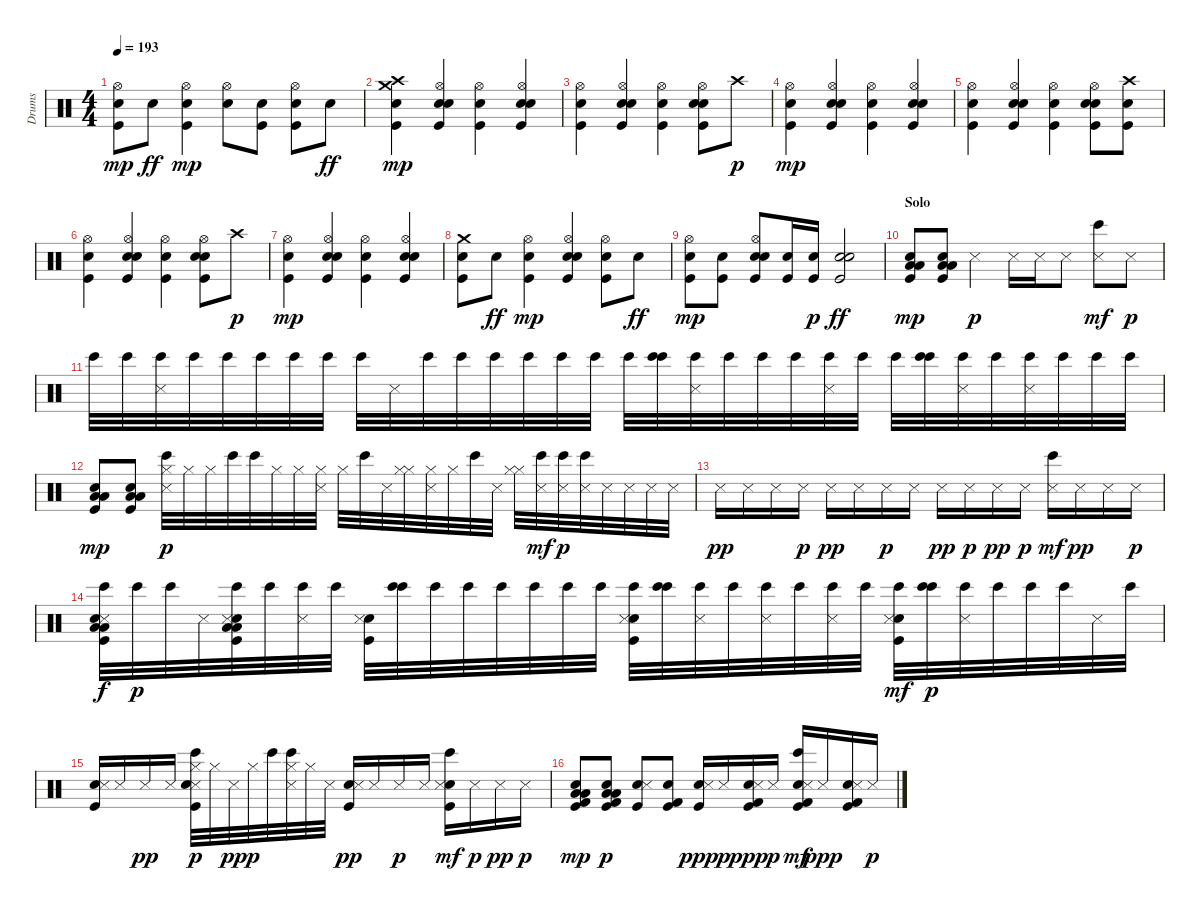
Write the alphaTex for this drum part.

\track ("Drums" "Drums") {instrument percussion}
\staff {score}
\articulation defaults
\ts (4 4)
\tempo 193
\clef neutral
\ks c
("Kick (hit)" "Snare (hit) 2" "Hi-Hat (open)").8{dy mp} "Electric Snare (hit)".8{dy ff} ("Kick (hit)" "Snare (hit) 2" "Hi-Hat (open)").4{dy mp} ("Electric Snare (hit)" "Hi-Hat (open)").8 ("Kick (hit)" "Snare (hit) 2").8 ("Kick (hit)" "Snare (hit) 2" "Hi-Hat (open)").8 "Electric Snare (hit)".8{dy ff} |
("Crash medium (hit)" "Crash high (hit)" "Kick (hit)" "Snare (hit) 2").4{dy mp} ("Kick (hit)" "Snare (hit) 2" "Electric Snare (hit)" "Hi-Hat (open)").4 ("Kick (hit)" "Snare (hit) 2" "Hi-Hat (open)").4 ("Kick (hit)" "Snare (hit) 2" "Electric Snare (hit)" "Hi-Hat (open)").4 |
("Kick (hit)" "Snare (hit) 2" "Hi-Hat (open)").4 ("Kick (hit)" "Snare (hit) 2" "Electric Snare (hit)" "Hi-Hat (open)").4 ("Kick (hit)" "Snare (hit) 2" "Hi-Hat (open)").4 ("Kick (hit)" "Snare (hit) 2" "Electric Snare (hit)" "Hi-Hat (open)").8 "Crash high (hit)".8{dy p} |
("Kick (hit)" "Snare (hit) 2" "Hi-Hat (open)").4{dy mp} ("Kick (hit)" "Snare (hit) 2" "Electric Snare (hit)" "Hi-Hat (open)").4 ("Kick (hit)" "Snare (hit) 2" "Hi-Hat (open)").4 ("Kick (hit)" "Snare (hit) 2" "Electric Snare (hit)" "Hi-Hat (open)").4 |
("Kick (hit)" "Snare (hit) 2" "Hi-Hat (open)").4 ("Kick (hit)" "Snare (hit) 2" "Electric Snare (hit)" "Hi-Hat (open)").4 ("Kick (hit)" "Snare (hit) 2" "Hi-Hat (open)").4 ("Kick (hit)" "Snare (hit) 2" "Electric Snare (hit)" "Hi-Hat (open)").8 ("Crash high (hit)" "Kick (hit)" "Snare (hit) 2").8 |
("Kick (hit)" "Snare (hit) 2" "Hi-Hat (open)").4 ("Kick (hit)" "Snare (hit) 2" "Electric Snare (hit)" "Hi-Hat (open)").4 ("Kick (hit)" "Snare (hit) 2" "Hi-Hat (open)").4 ("Kick (hit)" "Snare (hit) 2" "Electric Snare (hit)" "Hi-Hat (open)").8 "Crash high (hit)".8{dy p} |
("Kick (hit)" "Snare (hit) 2" "Hi-Hat (open)").4{dy mp} ("Kick (hit)" "Snare (hit) 2" "Electric Snare (hit)" "Hi-Hat (open)").4 ("Kick (hit)" "Snare (hit) 2" "Hi-Hat (open)").4 ("Kick (hit)" "Snare (hit) 2" "Electric Snare (hit)" "Hi-Hat (open)").4 |
("Crash medium (hit)" "Kick (hit)" "Snare (hit) 2").8 "Electric Snare (hit)".8{dy ff} ("Kick (hit)" "Snare (hit) 2" "Hi-Hat (open)").4{dy mp} ("Kick (hit)" "Snare (hit) 2" "Electric Snare (hit)" "Hi-Hat (open)").4 ("Kick (hit)" "Snare (hit) 2" "Hi-Hat (open)").8 "Electric Snare (hit)".8{dy ff} |
("Kick (hit)" "Snare (hit) 2" "Hi-Hat (open)").8{dy mp} ("Kick (hit)" "Snare (hit) 2").8 ("Kick (hit)" "Snare (hit) 2" "Electric Snare (hit)" "Hi-Hat (open)").8 ("Kick (hit)" "Snare (hit) 2").16 ("Kick (hit)" "Snare (hit) 2").16{dy p} ("Kick (hit)" "Snare (hit) 2" "Electric Snare (hit)").2{dy ff} |
\section ("" "Solo")
("Low Tom (hit)" "Low Floor Tom (hit)" "Kick (hit)" "Snare (hit) 2").8{dy mp balance 8} ("Low Tom (hit)" "Low Floor Tom (hit)" "Kick (hit)" "Snare (hit) 2").8 "Snare (side stick) 3".4{dy p} "Snare (side stick) 3".16 "Snare (side stick) 3".16 "Snare (side stick) 3".8 ("Snare (side stick) 3" "Bongo High (hit)").8{dy mf} "Snare (side stick) 3".8{dy p} |
"Bongo High (hit)".32 "Bongo High (hit)".32 ("Bongo High (hit)" "Snare (side stick) 3").32 "Bongo High (hit)".32 "Bongo High (hit)".32 "Bongo High (hit)".32 "Bongo High (hit)".32 "Bongo High (hit)".32 "Bongo High (hit)".32 "Snare (side stick) 3".32 "Bongo High (hit)".32 "Bongo High (hit)".32 "Bongo High (hit)".32 "Bongo High (hit)".32 "Bongo High (hit)".32 "Bongo High (hit)".32 "Bongo High (hit)".32 ("Bongo High (hit)" "Bongo High (hit)").32 ("Snare (side stick) 3" "Bongo High (hit)").32 "Bongo High (hit)".32 "Bongo High (hit)".32 "Bongo High (hit)".32 ("Snare (side stick) 3" "Bongo High (hit)").32 "Bongo High (hit)".32 "Bongo High (hit)".32 ("Bongo High (hit)" "Bongo High (hit)").32 ("Snare (side stick) 3" "Bongo High (hit)").32 "Bongo High (hit)".32 ("Snare (side stick) 3" "Bongo High (hit)").32 "Bongo High (hit)".32 "Bongo High (hit)".32 "Bongo High (hit)".32 |
("Low Tom (hit)" "Low Floor Tom (hit)" "Kick (hit)" "Snare (hit) 2").8{dy mp} ("Low Tom (hit)" "Low Floor Tom (hit)" "Kick (hit)" "Snare (hit) 2").8 ("Snare (side stick) 3" "Bongo High (hit)" "Hi-Hat (closed)").32{dy p} "Hi-Hat (closed)".32 "Hi-Hat (closed)".32 "Bongo High (hit)".32 "Bongo High (hit)".32 "Hi-Hat (closed)".32 "Hi-Hat (closed)".32 ("Snare (side stick) 3" "Hi-Hat (closed)").32 "Hi-Hat (closed)".32 "Bongo High (hit)".32 "Snare (side stick) 3".32 ("Hi-Hat (closed)" "Hi-Hat (closed)").32 ("Snare (side stick) 3" "Hi-Hat (closed)").32 "Hi-Hat (closed)".32 "Bongo High (hit)".32 "Snare (side stick) 3".32 ("Hi-Hat (closed)" "Hi-Hat (closed)").32 ("Snare (side stick) 3" "Bongo High (hit)").32{dy mf} ("Snare (side stick) 3" "Bongo High (hit)").32{dy p} ("Snare (side stick) 3" "Bongo High (hit)").32 "Snare (side stick) 3".32 "Snare (side stick) 3".32 "Snare (side stick) 3".32 "Snare (side stick) 3".32 |
"Snare (side stick) 3".16{dy pp} "Snare (side stick) 3".16 "Snare (side stick) 3".16 "Snare (side stick) 3".16{dy p} "Snare (side stick) 3".16{dy pp} "Snare (side stick) 3".16 "Snare (side stick) 3".16{dy p} "Snare (side stick) 3".16 "Snare (side stick) 3".16{dy pp} "Snare (side stick) 3".16{dy p} "Snare (side stick) 3".16{dy pp} "Snare (side stick) 3".16{dy p} ("Snare (side stick) 3" "Bongo High (hit)").16{dy mf} "Snare (side stick) 3".16{dy pp} "Snare (side stick) 3".16 "Snare (side stick) 3".16{dy p} |
("Low Tom (hit)" "Snare (side stick) 3" "Low Floor Tom (hit)" "Kick (hit)" "Bongo High (hit)" "Snare (hit) 2").32{dy f} "Bongo High (hit)".32{dy p} "Bongo High (hit)".32 "Snare (side stick) 3".32 ("Low Tom (hit)" "Low Floor Tom (hit)" "Kick (hit)" "Snare (hit) 2" "Snare (side stick) 3" "Bongo High (hit)").32 "Bongo High (hit)".32 ("Snare (side stick) 3" "Bongo High (hit)").32 "Bongo High (hit)".32 ("Kick (hit)" "Snare (hit) 2" "Snare (side stick) 3").32 ("Bongo High (hit)" "Bongo High (hit)").32 "Bongo High (hit)".32 "Bongo High (hit)".32 "Bongo High (hit)".32 "Bongo High (hit)".32 "Bongo High (hit)".32 "Bongo High (hit)".32 ("Kick (hit)" "Snare (hit) 2" "Snare (side stick) 3" "Bongo High (hit)").32 ("Bongo High (hit)" "Bongo High (hit)").32 ("Snare (side stick) 3" "Bongo High (hit)").32 "Bongo High (hit)".32 ("Snare (side stick) 3" "Bongo High (hit)").32 "Bongo High (hit)".32 ("Snare (side stick) 3" "Bongo High (hit)").32 "Bongo High (hit)".32 ("Kick (hit)" "Snare (hit) 2" "Snare (side stick) 3" "Bongo High (hit)").32{dy mf} ("Bongo High (hit)" "Bongo High (hit)").32{dy p} ("Snare (side stick) 3" "Bongo High (hit)").32 "Bongo High (hit)".32 "Bongo High (hit)".32 "Bongo High (hit)".32 "Snare (side stick) 3".32 "Bongo High (hit)".32 |
("Kick (hit)" "Snare (hit) 2" "Snare (side stick) 3").16 "Snare (side stick) 3".16 "Snare (side stick) 3".16{dy pp} "Snare (side stick) 3".16 ("Kick (hit)" "Snare (side stick) 3" "Snare (hit) 2" "Bongo High (hit)" "Hi-Hat (closed)").32{dy p} "Hi-Hat (closed)".32 "Snare (side stick) 3".32{dy pp} "Hi-Hat (closed)".32{dy p} "Bongo High (hit)".32 ("Snare (side stick) 3" "Bongo High (hit)" "Hi-Hat (closed)").32 "Hi-Hat (closed)".32 "Snare (side stick) 3".32 ("Kick (hit)" "Snare (hit) 2" "Snare (side stick) 3").16{dy pp} "Snare (side stick) 3".16 "Snare (side stick) 3".16{dy p} "Snare (side stick) 3".16 ("Kick (hit)" "Snare (hit) 2" "Snare (side stick) 3" "Bongo High (hit)").16{dy mf} "Snare (side stick) 3".16{dy p} "Snare (side stick) 3".16{dy pp} "Snare (side stick) 3".16{dy p} |
("Low Tom (hit)" "Low Floor Tom (hit)" "Kick (hit) 2" "Kick (hit)" "Snare (hit) 2").8{dy mp} ("Low Floor Tom (hit)" "Low Tom (hit)" "Kick (hit) 2" "Kick (hit)" "Snare (hit) 2").8{dy p} ("Kick (hit)" "Snare (hit) 2" "Snare (side stick) 3").8 ("Kick (hit) 2" "Kick (hit)" "Snare (hit) 2").8 ("Kick (hit)" "Snare (hit) 2" "Snare (side stick) 3").16{dy ppp} "Snare (side stick) 3".16{dy p} ("Kick (hit) 2" "Kick (hit)" "Snare (hit) 2" "Snare (side stick) 3").16{dy ppp} "Snare (side stick) 3".16{dy p} ("Kick (hit) 2" "Kick (hit)" "Snare (hit) 2" "Snare (side stick) 3" "Bongo High (hit)").16{dy mf} "Snare (side stick) 3".16{dy ppp} ("Kick (hit) 2" "Kick (hit)" "Snare (hit) 2" "Snare (side stick) 3").16 "Snare (side stick) 3".16{dy p}
